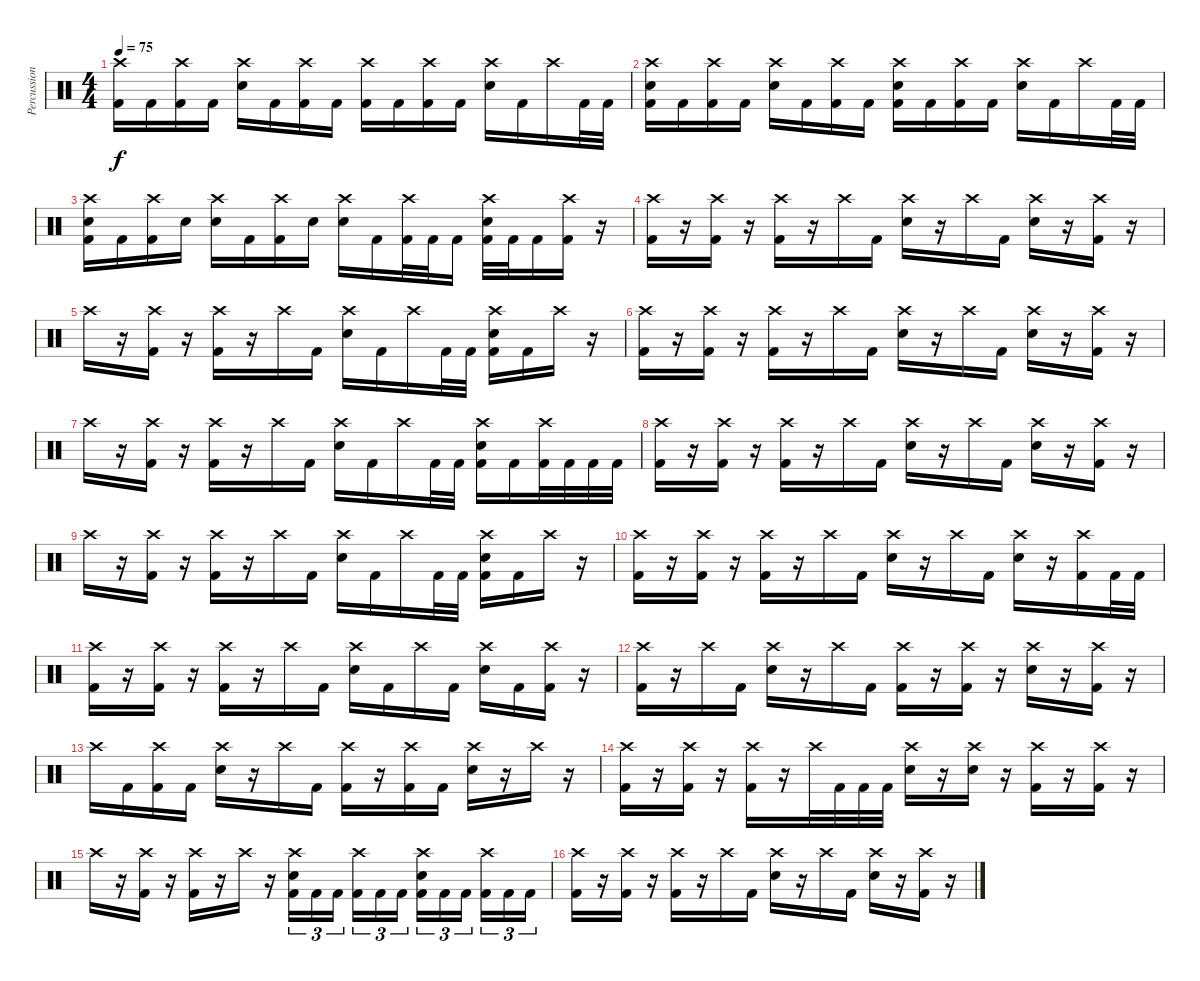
\track ("Percussion" "Percussion") {instrument percussion}
\staff {score}
\articulation defaults
\ts (4 4)
\tempo 75
\clef neutral
\ks c
("Crash high (hit)" "Kick (hit) 2").16{dy f} "Kick (hit) 2".16 ("Crash high (hit)" "Kick (hit) 2").16 "Kick (hit) 2".16 ("Crash high (hit)" "Electric Snare (hit)").16 "Kick (hit) 2".16 ("Crash high (hit)" "Kick (hit) 2").16 "Kick (hit) 2".16 ("Crash high (hit)" "Kick (hit) 2").16 "Kick (hit) 2".16 ("Crash high (hit)" "Kick (hit) 2").16 "Kick (hit) 2".16 ("Crash high (hit)" "Electric Snare (hit)").16 "Kick (hit) 2".16 "Crash high (hit)".16 "Kick (hit) 2".32 "Kick (hit) 2".32 |
("Crash high (hit)" "Electric Snare (hit)" "Kick (hit) 2").16 "Kick (hit) 2".16 ("Crash high (hit)" "Kick (hit) 2").16 "Kick (hit) 2".16 ("Crash high (hit)" "Electric Snare (hit)").16 "Kick (hit) 2".16 ("Crash high (hit)" "Kick (hit) 2").16 "Kick (hit) 2".16 ("Crash high (hit)" "Electric Snare (hit)" "Kick (hit) 2").16 "Kick (hit) 2".16 ("Crash high (hit)" "Kick (hit) 2").16 "Kick (hit) 2".16 ("Crash high (hit)" "Electric Snare (hit)").16 "Kick (hit) 2".16 "Crash high (hit)".16 "Kick (hit) 2".32 "Kick (hit) 2".32 |
("Crash high (hit)" "Electric Snare (hit)" "Kick (hit) 2").16 "Kick (hit) 2".16 ("Crash high (hit)" "Kick (hit) 2").16 "Electric Snare (hit)".16 ("Crash high (hit)" "Electric Snare (hit)").16 "Kick (hit) 2".16 ("Crash high (hit)" "Kick (hit) 2").16 "Electric Snare (hit)".16 ("Crash high (hit)" "Electric Snare (hit)").16 "Kick (hit) 2".16 ("Crash high (hit)" "Kick (hit) 2").32 "Kick (hit) 2".32 "Kick (hit) 2".16 ("Crash high (hit)" "Electric Snare (hit)" "Kick (hit) 2").32 "Kick (hit) 2".32 "Kick (hit) 2".16 ("Crash high (hit)" "Kick (hit) 2").16 r.16 |
("Crash high (hit)" "Kick (hit) 2").16 r.16 ("Crash high (hit)" "Kick (hit) 2").16 r.16 ("Crash high (hit)" "Kick (hit) 2").16 r.16 "Crash high (hit)".16 "Kick (hit) 2".16 ("Crash high (hit)" "Electric Snare (hit)").16 r.16 "Crash high (hit)".16 "Kick (hit) 2".16 ("Crash high (hit)" "Electric Snare (hit)").16 r.16 ("Crash high (hit)" "Kick (hit) 2").16 r.16 |
"Crash high (hit)".16 r.16 ("Crash high (hit)" "Kick (hit) 2").16 r.16 ("Crash high (hit)" "Kick (hit) 2").16 r.16 "Crash high (hit)".16 "Kick (hit) 2".16 ("Crash high (hit)" "Electric Snare (hit)").16 "Kick (hit) 2".16 "Crash high (hit)".16 "Kick (hit) 2".32 "Kick (hit) 2".32 ("Crash high (hit)" "Electric Snare (hit)" "Kick (hit) 2").16 "Kick (hit) 2".16 "Crash high (hit)".16 r.16 |
("Crash high (hit)" "Kick (hit) 2").16 r.16 ("Crash high (hit)" "Kick (hit) 2").16 r.16 ("Crash high (hit)" "Kick (hit) 2").16 r.16 "Crash high (hit)".16 "Kick (hit) 2".16 ("Crash high (hit)" "Electric Snare (hit)").16 r.16 "Crash high (hit)".16 "Kick (hit) 2".16 ("Crash high (hit)" "Electric Snare (hit)").16 r.16 ("Crash high (hit)" "Kick (hit) 2").16 r.16 |
"Crash high (hit)".16 r.16 ("Crash high (hit)" "Kick (hit) 2").16 r.16 ("Crash high (hit)" "Kick (hit) 2").16 r.16 "Crash high (hit)".16 "Kick (hit) 2".16 ("Crash high (hit)" "Electric Snare (hit)").16 "Kick (hit) 2".16 "Crash high (hit)".16 "Kick (hit) 2".32 "Kick (hit) 2".32 ("Crash high (hit)" "Electric Snare (hit)" "Kick (hit) 2").16 "Kick (hit) 2".16 ("Crash high (hit)" "Kick (hit) 2").32 "Kick (hit) 2".32 "Kick (hit) 2".32 "Kick (hit) 2".32 |
("Crash high (hit)" "Kick (hit) 2").16 r.16 ("Crash high (hit)" "Kick (hit) 2").16 r.16 ("Crash high (hit)" "Kick (hit) 2").16 r.16 "Crash high (hit)".16 "Kick (hit) 2".16 ("Crash high (hit)" "Electric Snare (hit)").16 r.16 "Crash high (hit)".16 "Kick (hit) 2".16 ("Crash high (hit)" "Electric Snare (hit)").16 r.16 ("Crash high (hit)" "Kick (hit) 2").16 r.16 |
"Crash high (hit)".16 r.16 ("Crash high (hit)" "Kick (hit) 2").16 r.16 ("Crash high (hit)" "Kick (hit) 2").16 r.16 "Crash high (hit)".16 "Kick (hit) 2".16 ("Crash high (hit)" "Electric Snare (hit)").16 "Kick (hit) 2".16 "Crash high (hit)".16 "Kick (hit) 2".32 "Kick (hit) 2".32 ("Crash high (hit)" "Electric Snare (hit)" "Kick (hit) 2").16 "Kick (hit) 2".16 "Crash high (hit)".16 r.16 |
("Crash high (hit)" "Kick (hit) 2").16 r.16 ("Crash high (hit)" "Kick (hit) 2").16 r.16 ("Crash high (hit)" "Kick (hit) 2").16 r.16 "Crash high (hit)".16 "Kick (hit) 2".16 ("Crash high (hit)" "Electric Snare (hit)").16 r.16 "Crash high (hit)".16 "Kick (hit) 2".16 ("Crash high (hit)" "Electric Snare (hit)").16 r.16 ("Crash high (hit)" "Kick (hit) 2").16 "Kick (hit) 2".32 "Kick (hit) 2".32 |
("Crash high (hit)" "Kick (hit) 2").16 r.16 ("Crash high (hit)" "Kick (hit) 2").16 r.16 ("Crash high (hit)" "Kick (hit) 2").16 r.16 "Crash high (hit)".16 "Kick (hit) 2".16 ("Crash high (hit)" "Electric Snare (hit)").16 "Kick (hit) 2".16 "Crash high (hit)".16 "Kick (hit) 2".16 ("Crash high (hit)" "Electric Snare (hit)").16 "Kick (hit) 2".16 ("Crash high (hit)" "Kick (hit) 2").16 r.16 |
("Crash high (hit)" "Kick (hit) 2").16 r.16 "Crash high (hit)".16 "Kick (hit) 2".16 ("Crash high (hit)" "Electric Snare (hit)").16 r.16 "Crash high (hit)".16 "Kick (hit) 2".16 ("Crash high (hit)" "Kick (hit) 2").16 r.16 ("Crash high (hit)" "Kick (hit) 2").16 r.16 ("Crash high (hit)" "Electric Snare (hit)").16 r.16 ("Crash high (hit)" "Kick (hit) 2").16 r.16 |
"Crash high (hit)".16 "Kick (hit) 2".16 ("Crash high (hit)" "Kick (hit) 2").16 "Kick (hit) 2".16 ("Crash high (hit)" "Electric Snare (hit)").16 r.16 "Crash high (hit)".16 "Kick (hit) 2".16 ("Crash high (hit)" "Kick (hit) 2").16 r.16 ("Crash high (hit)" "Kick (hit) 2").16 "Kick (hit) 2".16 ("Crash high (hit)" "Electric Snare (hit)").16 r.16 "Crash high (hit)".16 r.16 |
("Crash high (hit)" "Kick (hit) 2").16 r.16 ("Crash high (hit)" "Kick (hit) 2").16 r.16 ("Crash high (hit)" "Kick (hit) 2").16 r.16 "Crash high (hit)".32 "Kick (hit) 2".32 "Kick (hit) 2".32 "Kick (hit) 2".32 ("Crash high (hit)" "Electric Snare (hit)").16 r.16 ("Crash high (hit)" "Electric Snare (hit)").16 r.16 ("Crash high (hit)" "Kick (hit) 2").16 r.16 ("Crash high (hit)" "Kick (hit) 2").16 r.16 |
"Crash high (hit)".16 r.16 ("Crash high (hit)" "Kick (hit) 2").16 r.16 ("Crash high (hit)" "Kick (hit) 2").16 r.16 "Crash high (hit)".16 r.16 ("Crash high (hit)" "Electric Snare (hit)" "Kick (hit) 2").16{tu (3 2)} "Kick (hit) 2".16{tu (3 2)} "Kick (hit) 2".16{tu (3 2) beam splitsecondary} ("Crash high (hit)" "Kick (hit) 2").16{tu (3 2)} "Kick (hit) 2".16{tu (3 2)} "Kick (hit) 2".16{tu (3 2)} ("Crash high (hit)" "Electric Snare (hit)" "Kick (hit) 2").16{tu (3 2)} "Kick (hit) 2".16{tu (3 2)} "Kick (hit) 2".16{tu (3 2) beam splitsecondary} ("Crash high (hit)" "Kick (hit) 2").16{tu (3 2)} "Kick (hit) 2".16{tu (3 2)} "Kick (hit) 2".16{tu (3 2)} |
("Crash high (hit)" "Kick (hit) 2").16 r.16 ("Crash high (hit)" "Kick (hit) 2").16 r.16 ("Crash high (hit)" "Kick (hit) 2").16 r.16 "Crash high (hit)".16 "Kick (hit) 2".16 ("Crash high (hit)" "Electric Snare (hit)").16 r.16 "Crash high (hit)".16 "Kick (hit) 2".16 ("Crash high (hit)" "Electric Snare (hit)").16 r.16 ("Crash high (hit)" "Kick (hit) 2").16 r.16
